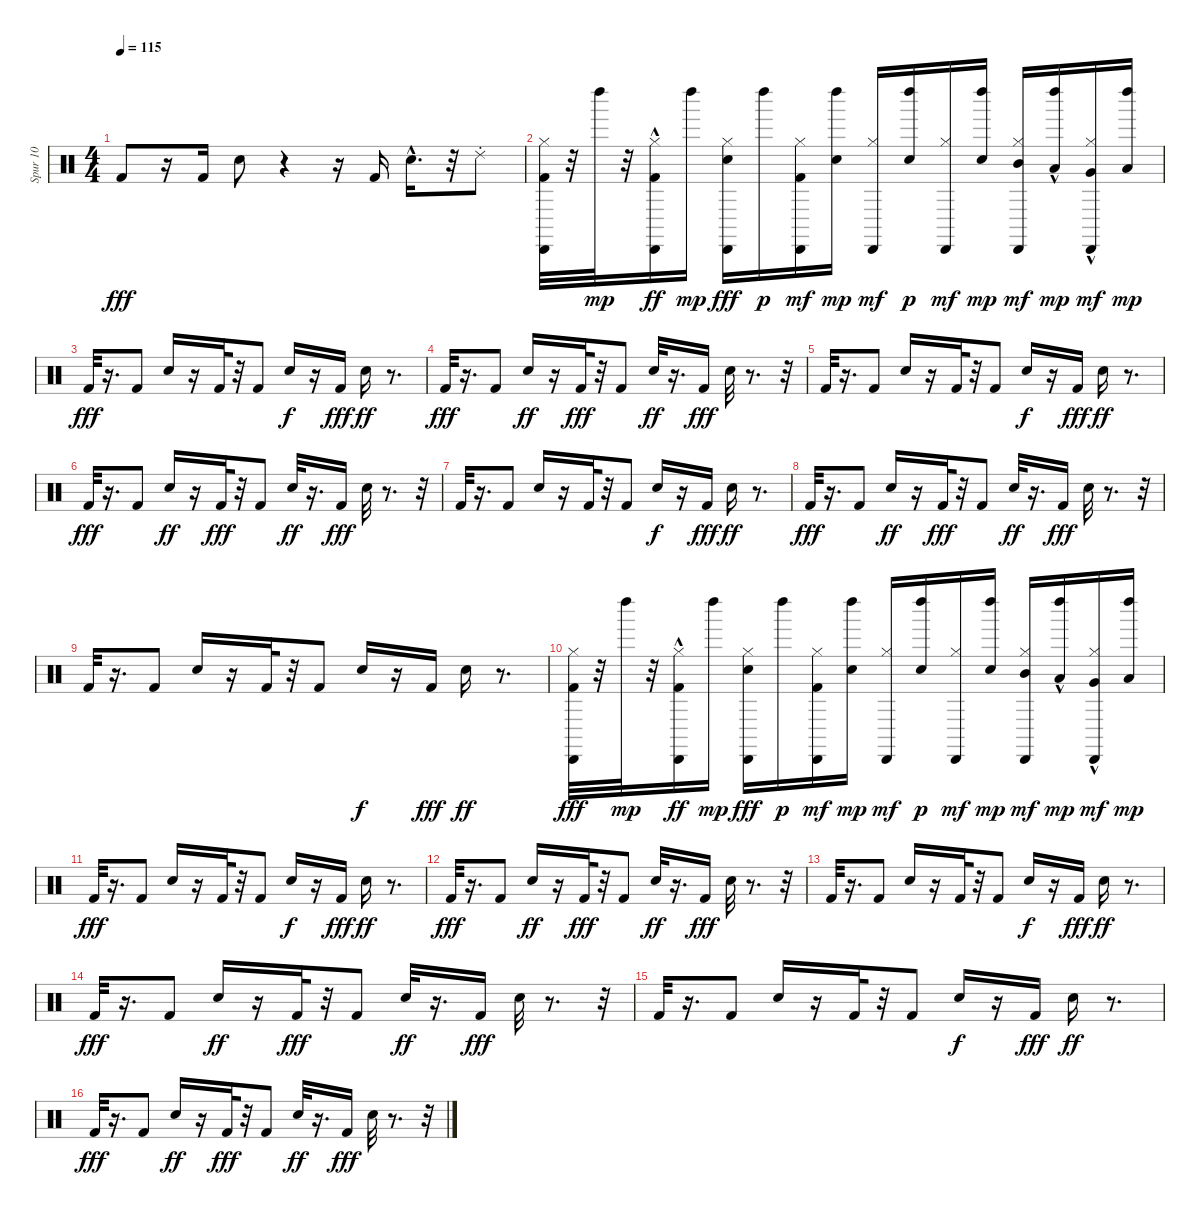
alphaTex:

\track ("Spur 10" "Spur 10") {instrument percussion}
\staff {score}
\articulation defaults
\ts (4 4)
\tempo 115
\clef neutral
\ks c "Kick (hit) 2".8{dy fff}
r.16 "Kick (hit) 2".16 "Metronome (bell)".8 r.4 r.16 "Kick (hit) 2".16 "Metronome (bell)"{hac}.16{d} r.32 "Ride (choke) 2".8 |
("Cabasa (hit)" "Hi-Hat (closed)" "Kick (hit) 2").32 r.32 "Left Maraca (hit)".32{dy mp} r.32 ("Cabasa (hit)" "Hi-Hat (closed)" "Kick (hit) 2"{hac}).16{dy ff} "Left Maraca (hit)".16{dy mp} ("Cabasa (hit)" "Metronome (bell)" "Hi-Hat (closed)").16{dy fff} "Left Maraca (hit)".16{dy p} ("Kick (hit) 2" "Hi-Hat (closed)" "Cabasa (hit)").16{dy mf} ("Metronome (bell)" "Left Maraca (hit)").16{dy mp} ("Hi-Hat (closed)" "Cabasa (hit)").16{dy mf} ("Metronome (bell)" "Left Maraca (hit)").16{dy p} ("Hi-Hat (closed)" "Cabasa (hit)").16{dy mf} ("Metronome (bell)" "Left Maraca (hit)").16{dy mp} ("Mid Tom (hit)" "Hi-Hat (closed)" "Cabasa (hit)").16{dy mf} ("Low Tom (hit)"{hac} "Left Maraca (hit)").16{dy mp} ("Hi-Hat (closed)" "Very Low Tom (hit)"{hac} "Cabasa (hit)").16{dy mf} ("Low Floor Tom (hit)" "Left Maraca (hit)").16{dy mp} |
"Kick (hit) 2".32{dy fff} r.16{d} "Kick (hit) 2".8 "Metronome (bell)".16 r.16 "Kick (hit) 2".32 r.32 "Kick (hit) 2".8 "Metronome (bell)".16{dy f} r.16 "Kick (hit) 2".16{dy fff} "Metronome (bell)".16{dy ff} r.8{d} |
"Kick (hit) 2".32{dy fff} r.16{d} "Kick (hit) 2".8 "Metronome (bell)".16{dy ff} r.16 "Kick (hit) 2".32{dy fff} r.32 "Kick (hit) 2".8 "Metronome (bell)".32{dy ff} r.16{d} "Kick (hit) 2".16{dy fff} "Metronome (bell)".32 r.8{d} r.32 |
"Kick (hit) 2".32 r.16{d} "Kick (hit) 2".8 "Metronome (bell)".16 r.16 "Kick (hit) 2".32 r.32 "Kick (hit) 2".8 "Metronome (bell)".16{dy f} r.16 "Kick (hit) 2".16{dy fff} "Metronome (bell)".16{dy ff} r.8{d} |
"Kick (hit) 2".32{dy fff} r.16{d} "Kick (hit) 2".8 "Metronome (bell)".16{dy ff} r.16 "Kick (hit) 2".32{dy fff} r.32 "Kick (hit) 2".8 "Metronome (bell)".32{dy ff} r.16{d} "Kick (hit) 2".16{dy fff} "Metronome (bell)".32 r.8{d} r.32 |
"Kick (hit) 2".32 r.16{d} "Kick (hit) 2".8 "Metronome (bell)".16 r.16 "Kick (hit) 2".32 r.32 "Kick (hit) 2".8 "Metronome (bell)".16{dy f} r.16 "Kick (hit) 2".16{dy fff} "Metronome (bell)".16{dy ff} r.8{d} |
"Kick (hit) 2".32{dy fff} r.16{d} "Kick (hit) 2".8 "Metronome (bell)".16{dy ff} r.16 "Kick (hit) 2".32{dy fff} r.32 "Kick (hit) 2".8 "Metronome (bell)".32{dy ff} r.16{d} "Kick (hit) 2".16{dy fff} "Metronome (bell)".32 r.8{d} r.32 |
"Kick (hit) 2".32 r.16{d} "Kick (hit) 2".8 "Metronome (bell)".16 r.16 "Kick (hit) 2".32 r.32 "Kick (hit) 2".8 "Metronome (bell)".16{dy f} r.16 "Kick (hit) 2".16{dy fff} "Metronome (bell)".16{dy ff} r.8{d} |
("Cabasa (hit)" "Hi-Hat (closed)" "Kick (hit) 2").32{dy fff} r.32 "Left Maraca (hit)".32{dy mp} r.32 ("Cabasa (hit)" "Hi-Hat (closed)" "Kick (hit) 2"{hac}).16{dy ff} "Left Maraca (hit)".16{dy mp} ("Cabasa (hit)" "Metronome (bell)" "Hi-Hat (closed)").16{dy fff} "Left Maraca (hit)".16{dy p} ("Kick (hit) 2" "Hi-Hat (closed)" "Cabasa (hit)").16{dy mf} ("Metronome (bell)" "Left Maraca (hit)").16{dy mp} ("Hi-Hat (closed)" "Cabasa (hit)").16{dy mf} ("Metronome (bell)" "Left Maraca (hit)").16{dy p} ("Hi-Hat (closed)" "Cabasa (hit)").16{dy mf} ("Metronome (bell)" "Left Maraca (hit)").16{dy mp} ("Mid Tom (hit)" "Hi-Hat (closed)" "Cabasa (hit)").16{dy mf} ("Low Tom (hit)"{hac} "Left Maraca (hit)").16{dy mp} ("Hi-Hat (closed)" "Very Low Tom (hit)"{hac} "Cabasa (hit)").16{dy mf} ("Low Floor Tom (hit)" "Left Maraca (hit)").16{dy mp} |
"Kick (hit) 2".32{dy fff} r.16{d} "Kick (hit) 2".8 "Metronome (bell)".16 r.16 "Kick (hit) 2".32 r.32 "Kick (hit) 2".8 "Metronome (bell)".16{dy f} r.16 "Kick (hit) 2".16{dy fff} "Metronome (bell)".16{dy ff} r.8{d} |
"Kick (hit) 2".32{dy fff} r.16{d} "Kick (hit) 2".8 "Metronome (bell)".16{dy ff} r.16 "Kick (hit) 2".32{dy fff} r.32 "Kick (hit) 2".8 "Metronome (bell)".32{dy ff} r.16{d} "Kick (hit) 2".16{dy fff} "Metronome (bell)".32 r.8{d} r.32 |
"Kick (hit) 2".32 r.16{d} "Kick (hit) 2".8 "Metronome (bell)".16 r.16 "Kick (hit) 2".32 r.32 "Kick (hit) 2".8 "Metronome (bell)".16{dy f} r.16 "Kick (hit) 2".16{dy fff} "Metronome (bell)".16{dy ff} r.8{d} |
"Kick (hit) 2".32{dy fff} r.16{d} "Kick (hit) 2".8 "Metronome (bell)".16{dy ff} r.16 "Kick (hit) 2".32{dy fff} r.32 "Kick (hit) 2".8 "Metronome (bell)".32{dy ff} r.16{d} "Kick (hit) 2".16{dy fff} "Metronome (bell)".32 r.8{d} r.32 |
"Kick (hit) 2".32 r.16{d} "Kick (hit) 2".8 "Metronome (bell)".16 r.16 "Kick (hit) 2".32 r.32 "Kick (hit) 2".8 "Metronome (bell)".16{dy f} r.16 "Kick (hit) 2".16{dy fff} "Metronome (bell)".16{dy ff} r.8{d} |
"Kick (hit) 2".32{dy fff} r.16{d} "Kick (hit) 2".8 "Metronome (bell)".16{dy ff} r.16 "Kick (hit) 2".32{dy fff} r.32 "Kick (hit) 2".8 "Metronome (bell)".32{dy ff} r.16{d} "Kick (hit) 2".16{dy fff} "Metronome (bell)".32 r.8{d} r.32
